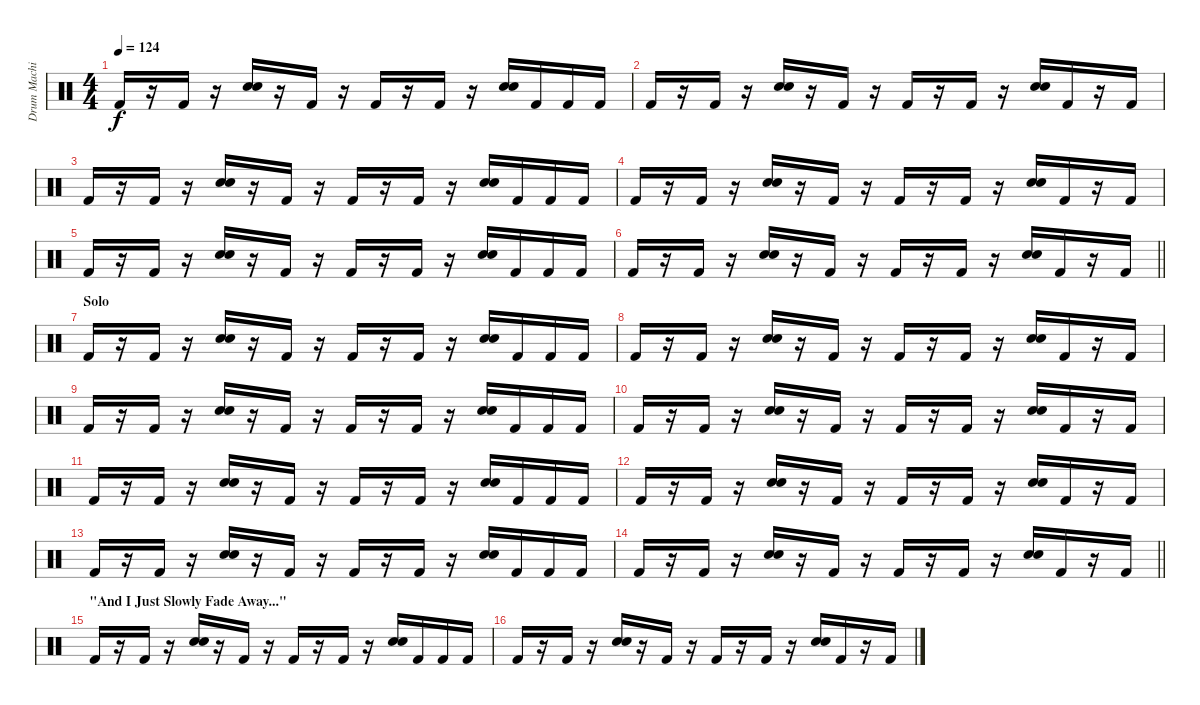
\track ("Drum Machine" "Drum Machi") {instrument percussion}
\staff {score}
\articulation defaults
\ts (4 4)
\tempo 124
\clef neutral
\ks c "Kick (hit) 2".16{dy f}
r.16 "Kick (hit) 2".16 r.16 ("Electric Snare (hit)" "Hand Clap (hit)").16 r.16 "Kick (hit) 2".16 r.16 "Kick (hit) 2".16 r.16 "Kick (hit) 2".16 r.16 ("Electric Snare (hit)" "Hand Clap (hit)").16 "Kick (hit) 2".16 "Kick (hit) 2".16 "Kick (hit) 2".16 |
"Kick (hit) 2".16 r.16 "Kick (hit) 2".16 r.16 ("Electric Snare (hit)" "Hand Clap (hit)").16 r.16 "Kick (hit) 2".16 r.16 "Kick (hit) 2".16 r.16 "Kick (hit) 2".16 r.16 ("Electric Snare (hit)" "Hand Clap (hit)").16 "Kick (hit) 2".16 r.16 "Kick (hit) 2".16 |
"Kick (hit) 2".16 r.16 "Kick (hit) 2".16 r.16 ("Electric Snare (hit)" "Hand Clap (hit)").16 r.16 "Kick (hit) 2".16 r.16 "Kick (hit) 2".16 r.16 "Kick (hit) 2".16 r.16 ("Electric Snare (hit)" "Hand Clap (hit)").16 "Kick (hit) 2".16 "Kick (hit) 2".16 "Kick (hit) 2".16 |
"Kick (hit) 2".16 r.16 "Kick (hit) 2".16 r.16 ("Electric Snare (hit)" "Hand Clap (hit)").16 r.16 "Kick (hit) 2".16 r.16 "Kick (hit) 2".16 r.16 "Kick (hit) 2".16 r.16 ("Electric Snare (hit)" "Hand Clap (hit)").16 "Kick (hit) 2".16 r.16 "Kick (hit) 2".16 |
"Kick (hit) 2".16 r.16 "Kick (hit) 2".16 r.16 ("Electric Snare (hit)" "Hand Clap (hit)").16 r.16 "Kick (hit) 2".16 r.16 "Kick (hit) 2".16 r.16 "Kick (hit) 2".16 r.16 ("Electric Snare (hit)" "Hand Clap (hit)").16 "Kick (hit) 2".16 "Kick (hit) 2".16 "Kick (hit) 2".16 |
\barLineRight lightlight "Kick (hit) 2".16
r.16 "Kick (hit) 2".16 r.16 ("Electric Snare (hit)" "Hand Clap (hit)").16 r.16 "Kick (hit) 2".16 r.16 "Kick (hit) 2".16 r.16 "Kick (hit) 2".16 r.16 ("Electric Snare (hit)" "Hand Clap (hit)").16 "Kick (hit) 2".16 r.16 "Kick (hit) 2".16 |
\section ("" "Solo")
"Kick (hit) 2".16 r.16 "Kick (hit) 2".16 r.16 ("Electric Snare (hit)" "Hand Clap (hit)").16 r.16 "Kick (hit) 2".16 r.16 "Kick (hit) 2".16 r.16 "Kick (hit) 2".16 r.16 ("Electric Snare (hit)" "Hand Clap (hit)").16 "Kick (hit) 2".16 "Kick (hit) 2".16 "Kick (hit) 2".16 |
"Kick (hit) 2".16 r.16 "Kick (hit) 2".16 r.16 ("Electric Snare (hit)" "Hand Clap (hit)").16 r.16 "Kick (hit) 2".16 r.16 "Kick (hit) 2".16 r.16 "Kick (hit) 2".16 r.16 ("Electric Snare (hit)" "Hand Clap (hit)").16 "Kick (hit) 2".16 r.16 "Kick (hit) 2".16 |
"Kick (hit) 2".16 r.16 "Kick (hit) 2".16 r.16 ("Electric Snare (hit)" "Hand Clap (hit)").16 r.16 "Kick (hit) 2".16 r.16 "Kick (hit) 2".16 r.16 "Kick (hit) 2".16 r.16 ("Electric Snare (hit)" "Hand Clap (hit)").16 "Kick (hit) 2".16 "Kick (hit) 2".16 "Kick (hit) 2".16 |
"Kick (hit) 2".16 r.16 "Kick (hit) 2".16 r.16 ("Electric Snare (hit)" "Hand Clap (hit)").16 r.16 "Kick (hit) 2".16 r.16 "Kick (hit) 2".16 r.16 "Kick (hit) 2".16 r.16 ("Electric Snare (hit)" "Hand Clap (hit)").16 "Kick (hit) 2".16 r.16 "Kick (hit) 2".16 |
"Kick (hit) 2".16 r.16 "Kick (hit) 2".16 r.16 ("Electric Snare (hit)" "Hand Clap (hit)").16 r.16 "Kick (hit) 2".16 r.16 "Kick (hit) 2".16 r.16 "Kick (hit) 2".16 r.16 ("Electric Snare (hit)" "Hand Clap (hit)").16 "Kick (hit) 2".16 "Kick (hit) 2".16 "Kick (hit) 2".16 |
"Kick (hit) 2".16 r.16 "Kick (hit) 2".16 r.16 ("Electric Snare (hit)" "Hand Clap (hit)").16 r.16 "Kick (hit) 2".16 r.16 "Kick (hit) 2".16 r.16 "Kick (hit) 2".16 r.16 ("Electric Snare (hit)" "Hand Clap (hit)").16 "Kick (hit) 2".16 r.16 "Kick (hit) 2".16 |
"Kick (hit) 2".16 r.16 "Kick (hit) 2".16 r.16 ("Electric Snare (hit)" "Hand Clap (hit)").16 r.16 "Kick (hit) 2".16 r.16 "Kick (hit) 2".16 r.16 "Kick (hit) 2".16 r.16 ("Electric Snare (hit)" "Hand Clap (hit)").16 "Kick (hit) 2".16 "Kick (hit) 2".16 "Kick (hit) 2".16 |
\barLineRight lightlight "Kick (hit) 2".16
r.16 "Kick (hit) 2".16 r.16 ("Electric Snare (hit)" "Hand Clap (hit)").16 r.16 "Kick (hit) 2".16 r.16 "Kick (hit) 2".16 r.16 "Kick (hit) 2".16 r.16 ("Electric Snare (hit)" "Hand Clap (hit)").16 "Kick (hit) 2".16 r.16 "Kick (hit) 2".16 |
\section ("" "\"And I Just Slowly Fade Away...\"")
"Kick (hit) 2".16 r.16 "Kick (hit) 2".16 r.16 ("Electric Snare (hit)" "Hand Clap (hit)").16 r.16 "Kick (hit) 2".16 r.16 "Kick (hit) 2".16 r.16 "Kick (hit) 2".16 r.16 ("Electric Snare (hit)" "Hand Clap (hit)").16 "Kick (hit) 2".16 "Kick (hit) 2".16 "Kick (hit) 2".16 |
"Kick (hit) 2".16 r.16 "Kick (hit) 2".16 r.16 ("Electric Snare (hit)" "Hand Clap (hit)").16 r.16 "Kick (hit) 2".16 r.16 "Kick (hit) 2".16 r.16 "Kick (hit) 2".16 r.16 ("Electric Snare (hit)" "Hand Clap (hit)").16 "Kick (hit) 2".16 r.16 "Kick (hit) 2".16
